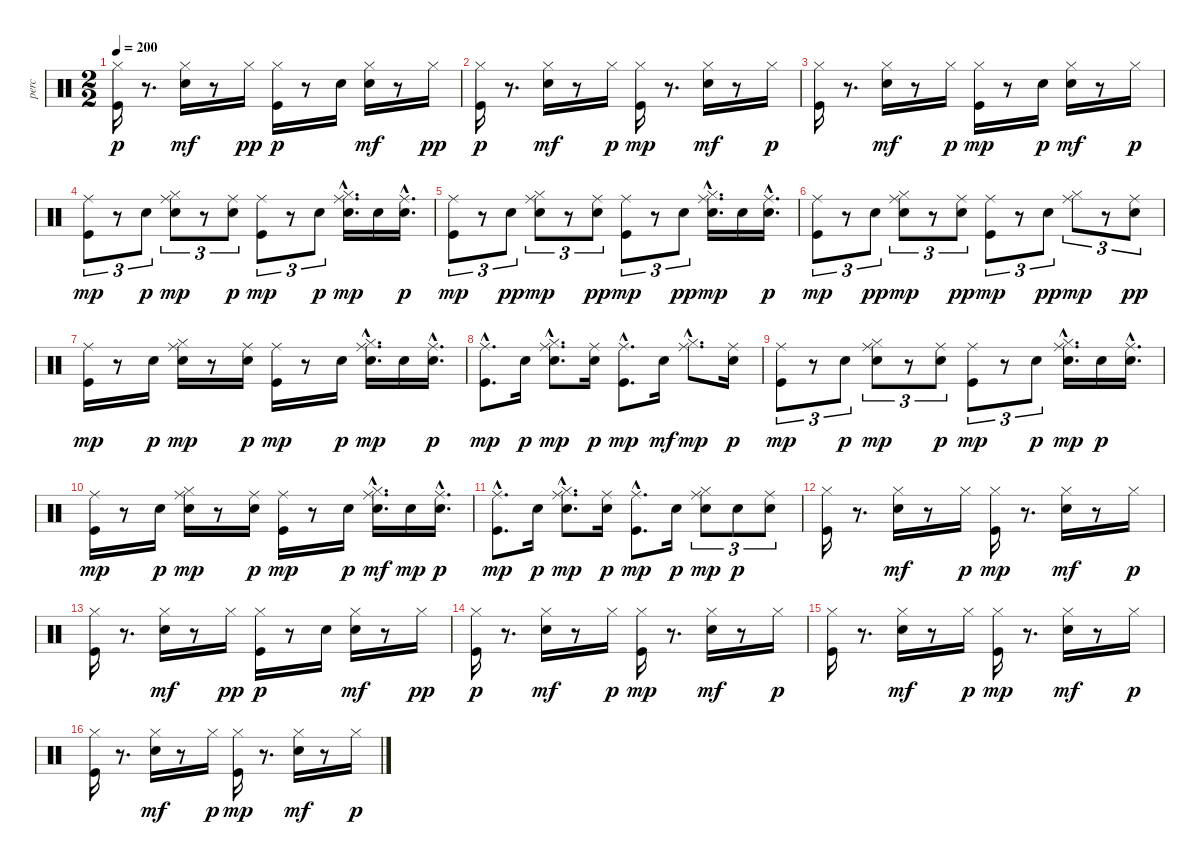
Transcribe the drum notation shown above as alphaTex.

\track ("perc" "perc") {instrument percussion}
\staff {score}
\articulation defaults
\ts (2 2)
\tempo 200
\clef neutral
\ks c
("Kick (hit)" "Hi-Hat (closed)").16{dy p} r.8{d} ("Snare (hit) 2" "Hi-Hat (closed)").16{dy mf} r.8 "Hi-Hat (closed)".16{dy pp} ("Kick (hit)" "Hi-Hat (closed)").16{dy p} r.8 "Snare (hit) 2".16 ("Snare (hit) 2" "Hi-Hat (closed)").16{dy mf} r.8 "Hi-Hat (closed)".16{dy pp} |
("Kick (hit)" "Hi-Hat (closed)").16{dy p} r.8{d} ("Snare (hit) 2" "Hi-Hat (closed)").16{dy mf} r.8 "Hi-Hat (closed)".16{dy p} ("Kick (hit)" "Hi-Hat (closed)").16{dy mp} r.8{d} ("Snare (hit) 2" "Hi-Hat (closed)").16{dy mf} r.8 "Hi-Hat (closed)".16{dy p} |
("Kick (hit)" "Hi-Hat (closed)").16 r.8{d} ("Snare (hit) 2" "Hi-Hat (closed)").16{dy mf} r.8 "Hi-Hat (closed)".16{dy p} ("Kick (hit)" "Hi-Hat (closed)").16{dy mp} r.8 "Snare (hit) 2".16{dy p} ("Snare (hit) 2" "Hi-Hat (closed)").16{dy mf} r.8 "Hi-Hat (closed)".16{dy p} |
("Kick (hit)" "Ride (middle)").8{tu (3 2) dy mp} r.8{tu (3 2)} "Snare (hit) 2".8{tu (3 2) dy p} ("Snare (hit) 2" "Hi-Hat (closed)" "Ride (middle)").8{tu (3 2) dy mp} r.8{tu (3 2)} ("Snare (hit) 2" "Ride (middle)").8{tu (3 2) dy p} ("Kick (hit)" "Ride (middle)").8{tu (3 2) dy mp} r.8{tu (3 2)} "Snare (hit) 2".8{tu (3 2) dy p} ("Snare (hit) 2"{hac} "Hi-Hat (closed)"{hac} "Ride (middle)"{hac}).16{d dy mp} "Snare (hit) 2".16 ("Snare (hit) 2"{hac} "Ride (middle)"{hac}).16{d dy p} |
("Kick (hit)" "Ride (middle)").8{tu (3 2) dy mp} r.8{tu (3 2)} "Snare (hit) 2".8{tu (3 2) dy pp} ("Snare (hit) 2" "Hi-Hat (closed)" "Ride (middle)").8{tu (3 2) dy mp} r.8{tu (3 2)} ("Snare (hit) 2" "Ride (middle)").8{tu (3 2) dy pp} ("Kick (hit)" "Ride (middle)").8{tu (3 2) dy mp} r.8{tu (3 2)} "Snare (hit) 2".8{tu (3 2) dy pp} ("Snare (hit) 2"{hac} "Hi-Hat (closed)"{hac} "Ride (middle)"{hac}).16{d dy mp} "Snare (hit) 2".16 ("Snare (hit) 2"{hac} "Ride (middle)"{hac}).16{d dy p} |
("Kick (hit)" "Ride (middle)").8{tu (3 2) dy mp} r.8{tu (3 2)} "Snare (hit) 2".8{tu (3 2) dy pp} ("Snare (hit) 2" "Hi-Hat (closed)" "Ride (middle)").8{tu (3 2) dy mp} r.8{tu (3 2)} ("Snare (hit) 2" "Ride (middle)").8{tu (3 2) dy pp} ("Kick (hit)" "Ride (middle)").8{tu (3 2) dy mp} r.8{tu (3 2)} "Snare (hit) 2".8{tu (3 2) dy pp} ("Hi-Hat (closed)" "Ride (middle)").8{tu (3 2) dy mp} r.8{tu (3 2)} ("Snare (hit) 2" "Ride (middle)").8{tu (3 2) dy pp} |
("Kick (hit)" "Ride (middle)").16{dy mp} r.8 "Snare (hit) 2".16{dy p} ("Snare (hit) 2" "Hi-Hat (closed)" "Ride (middle)").16{dy mp} r.8 ("Snare (hit) 2" "Ride (middle)").16{dy p} ("Kick (hit)" "Ride (middle)").16{dy mp} r.8 "Snare (hit) 2".16{dy p} ("Snare (hit) 2"{hac} "Hi-Hat (closed)"{hac} "Ride (middle)"{hac}).16{d dy mp} "Snare (hit) 2".16 ("Snare (hit) 2"{hac} "Ride (middle)"{hac}).16{d dy p} |
("Kick (hit)"{hac} "Ride (middle)"{hac}).8{d dy mp} "Snare (hit) 2".16{dy p} ("Snare (hit) 2"{hac} "Hi-Hat (closed)"{hac} "Ride (middle)"{hac}).8{d dy mp} ("Snare (hit) 2" "Ride (middle)").16{dy p} ("Kick (hit)"{hac} "Ride (middle)"{hac}).8{d dy mp} "Snare (hit) 2".16{dy mf} ("Hi-Hat (closed)"{hac} "Ride (middle)"{hac}).8{d dy mp} ("Snare (hit) 2" "Ride (middle)").16{dy p} |
("Kick (hit)" "Ride (middle)").8{tu (3 2) dy mp} r.8{tu (3 2)} "Snare (hit) 2".8{tu (3 2) dy p} ("Snare (hit) 2" "Hi-Hat (closed)" "Ride (middle)").8{tu (3 2) dy mp} r.8{tu (3 2)} ("Snare (hit) 2" "Ride (middle)").8{tu (3 2) dy p} ("Kick (hit)" "Ride (middle)").8{tu (3 2) dy mp} r.8{tu (3 2)} "Snare (hit) 2".8{tu (3 2) dy p} ("Snare (hit) 2"{hac} "Hi-Hat (closed)"{hac} "Ride (middle)"{hac}).16{d dy mp} "Snare (hit) 2".16{dy p} ("Snare (hit) 2"{hac} "Ride (middle)"{hac}).16{d} |
("Kick (hit)" "Ride (middle)").16{dy mp} r.8 "Snare (hit) 2".16{dy p} ("Snare (hit) 2" "Hi-Hat (closed)" "Ride (middle)").16{dy mp} r.8 ("Snare (hit) 2" "Ride (middle)").16{dy p} ("Kick (hit)" "Ride (middle)").16{dy mp} r.8 "Snare (hit) 2".16{dy p} ("Snare (hit) 2"{hac} "Hi-Hat (closed)"{hac} "Ride (middle)"{hac}).16{d dy mf} "Snare (hit) 2".16{dy mp} ("Snare (hit) 2"{hac} "Ride (middle)"{hac}).16{d dy p} |
("Kick (hit)"{hac} "Ride (middle)"{hac}).8{d dy mp} "Snare (hit) 2".16{dy p} ("Snare (hit) 2"{hac} "Hi-Hat (closed)"{hac} "Ride (middle)"{hac}).8{d dy mp} ("Snare (hit) 2" "Ride (middle)").16{dy p} ("Kick (hit)"{hac} "Ride (middle)"{hac}).8{d dy mp} "Snare (hit) 2".16{dy p} ("Snare (hit) 2" "Hi-Hat (closed)" "Ride (middle)").8{tu (3 2) dy mp} "Snare (hit) 2".8{tu (3 2) dy p} ("Snare (hit) 2" "Ride (middle)").8{tu (3 2)} |
("Kick (hit)" "Hi-Hat (closed)").16 r.8{d} ("Snare (hit) 2" "Hi-Hat (closed)").16{dy mf} r.8 "Hi-Hat (closed)".16{dy p} ("Kick (hit)" "Hi-Hat (closed)").16{dy mp} r.8{d} ("Snare (hit) 2" "Hi-Hat (closed)").16{dy mf} r.8 "Hi-Hat (closed)".16{dy p} |
("Kick (hit)" "Hi-Hat (closed)").16 r.8{d} ("Snare (hit) 2" "Hi-Hat (closed)").16{dy mf} r.8 "Hi-Hat (closed)".16{dy pp} ("Kick (hit)" "Hi-Hat (closed)").16{dy p} r.8 "Snare (hit) 2".16 ("Snare (hit) 2" "Hi-Hat (closed)").16{dy mf} r.8 "Hi-Hat (closed)".16{dy pp} |
("Kick (hit)" "Hi-Hat (closed)").16{dy p} r.8{d} ("Snare (hit) 2" "Hi-Hat (closed)").16{dy mf} r.8 "Hi-Hat (closed)".16{dy p} ("Kick (hit)" "Hi-Hat (closed)").16{dy mp} r.8{d} ("Snare (hit) 2" "Hi-Hat (closed)").16{dy mf} r.8 "Hi-Hat (closed)".16{dy p} |
("Kick (hit)" "Hi-Hat (closed)").16 r.8{d} ("Snare (hit) 2" "Hi-Hat (closed)").16{dy mf} r.8 "Hi-Hat (closed)".16{dy p} ("Kick (hit)" "Hi-Hat (closed)").16{dy mp} r.8{d} ("Snare (hit) 2" "Hi-Hat (closed)").16{dy mf} r.8 "Hi-Hat (closed)".16{dy p} |
("Kick (hit)" "Hi-Hat (closed)").16 r.8{d} ("Snare (hit) 2" "Hi-Hat (closed)").16{dy mf} r.8 "Hi-Hat (closed)".16{dy p} ("Kick (hit)" "Hi-Hat (closed)").16{dy mp} r.8{d} ("Snare (hit) 2" "Hi-Hat (closed)").16{dy mf} r.8 "Hi-Hat (closed)".16{dy p}
